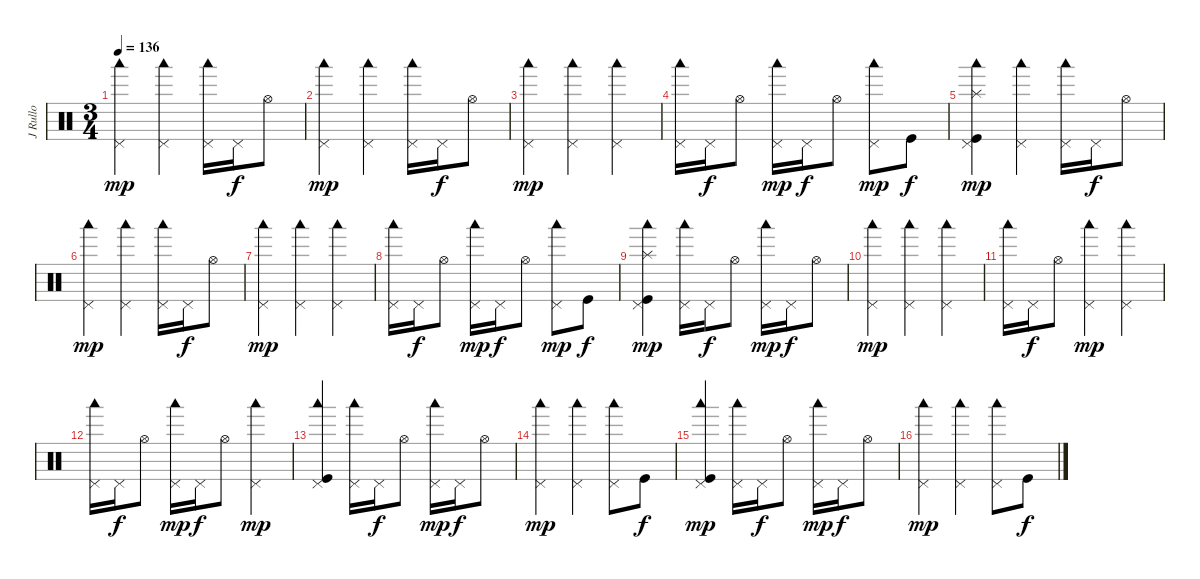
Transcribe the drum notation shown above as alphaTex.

\track ("J Rullo" "J Rullo") {instrument percussion}
\staff {score}
\articulation defaults
\ts (3 4)
\tempo 136
\clef neutral
\ks c
("Pedal Hi-Hat (hit)" "Woodblock low (hit)").4{dy mp} ("Pedal Hi-Hat (hit)" "Woodblock low (hit)").4 ("Pedal Hi-Hat (hit)" "Woodblock low (hit)").16 "Pedal Hi-Hat (hit)".16{dy f} "Hi-Hat (open)".8 |
("Pedal Hi-Hat (hit)" "Woodblock low (hit)").4{dy mp} ("Pedal Hi-Hat (hit)" "Woodblock low (hit)").4 ("Pedal Hi-Hat (hit)" "Woodblock low (hit)").16 "Pedal Hi-Hat (hit)".16{dy f} "Hi-Hat (open)".8 |
("Pedal Hi-Hat (hit)" "Woodblock low (hit)").4{dy mp} ("Pedal Hi-Hat (hit)" "Woodblock low (hit)").4 ("Pedal Hi-Hat (hit)" "Woodblock low (hit)").4 |
("Pedal Hi-Hat (hit)" "Woodblock low (hit)").16 "Pedal Hi-Hat (hit)".16{dy f} "Hi-Hat (open)".8 ("Pedal Hi-Hat (hit)" "Woodblock low (hit)").16{dy mp} "Pedal Hi-Hat (hit)".16{dy f} "Hi-Hat (open)".8 ("Pedal Hi-Hat (hit)" "Woodblock low (hit)").8{dy mp} "Kick (hit)".8{dy f} |
("Pedal Hi-Hat (hit)" "Woodblock low (hit)" "Splash (hit)" "Kick (hit)").4{dy mp} ("Pedal Hi-Hat (hit)" "Woodblock low (hit)").4 ("Pedal Hi-Hat (hit)" "Woodblock low (hit)").16 "Pedal Hi-Hat (hit)".16{dy f} "Hi-Hat (open)".8 |
("Pedal Hi-Hat (hit)" "Woodblock low (hit)").4{dy mp} ("Pedal Hi-Hat (hit)" "Woodblock low (hit)").4 ("Pedal Hi-Hat (hit)" "Woodblock low (hit)").16 "Pedal Hi-Hat (hit)".16{dy f} "Hi-Hat (open)".8 |
("Pedal Hi-Hat (hit)" "Woodblock low (hit)").4{dy mp} ("Pedal Hi-Hat (hit)" "Woodblock low (hit)").4 ("Pedal Hi-Hat (hit)" "Woodblock low (hit)").4 |
("Pedal Hi-Hat (hit)" "Woodblock low (hit)").16 "Pedal Hi-Hat (hit)".16{dy f} "Hi-Hat (open)".8 ("Pedal Hi-Hat (hit)" "Woodblock low (hit)").16{dy mp} "Pedal Hi-Hat (hit)".16{dy f} "Hi-Hat (open)".8 ("Pedal Hi-Hat (hit)" "Woodblock low (hit)").8{dy mp} "Kick (hit)".8{dy f} |
("Pedal Hi-Hat (hit)" "Woodblock low (hit)" "Splash (hit)" "Kick (hit)").4{dy mp} ("Pedal Hi-Hat (hit)" "Woodblock low (hit)").16 "Pedal Hi-Hat (hit)".16{dy f} "Hi-Hat (open)".8 ("Pedal Hi-Hat (hit)" "Woodblock low (hit)").16{dy mp} "Pedal Hi-Hat (hit)".16{dy f} "Hi-Hat (open)".8 |
("Pedal Hi-Hat (hit)" "Woodblock low (hit)").4{dy mp} ("Pedal Hi-Hat (hit)" "Woodblock low (hit)").4 ("Pedal Hi-Hat (hit)" "Woodblock low (hit)").4 |
("Pedal Hi-Hat (hit)" "Woodblock low (hit)").16 "Pedal Hi-Hat (hit)".16{dy f} "Hi-Hat (open)".8 ("Pedal Hi-Hat (hit)" "Woodblock low (hit)").4{dy mp} ("Pedal Hi-Hat (hit)" "Woodblock low (hit)").4 |
("Pedal Hi-Hat (hit)" "Woodblock low (hit)").16 "Pedal Hi-Hat (hit)".16{dy f} "Hi-Hat (open)".8 ("Pedal Hi-Hat (hit)" "Woodblock low (hit)").16{dy mp} "Pedal Hi-Hat (hit)".16{dy f} "Hi-Hat (open)".8 ("Pedal Hi-Hat (hit)" "Woodblock low (hit)").4{dy mp} |
("Pedal Hi-Hat (hit)" "Woodblock low (hit)" "Kick (hit)").4 ("Pedal Hi-Hat (hit)" "Woodblock low (hit)").16 "Pedal Hi-Hat (hit)".16{dy f} "Hi-Hat (open)".8 ("Pedal Hi-Hat (hit)" "Woodblock low (hit)").16{dy mp} "Pedal Hi-Hat (hit)".16{dy f} "Hi-Hat (open)".8 |
("Pedal Hi-Hat (hit)" "Woodblock low (hit)").4{dy mp} ("Pedal Hi-Hat (hit)" "Woodblock low (hit)").4 ("Pedal Hi-Hat (hit)" "Woodblock low (hit)").8 "Kick (hit)".8{dy f} |
("Pedal Hi-Hat (hit)" "Woodblock low (hit)" "Kick (hit)").4{dy mp} ("Pedal Hi-Hat (hit)" "Woodblock low (hit)").16 "Pedal Hi-Hat (hit)".16{dy f} "Hi-Hat (open)".8 ("Pedal Hi-Hat (hit)" "Woodblock low (hit)").16{dy mp} "Pedal Hi-Hat (hit)".16{dy f} "Hi-Hat (open)".8 |
("Pedal Hi-Hat (hit)" "Woodblock low (hit)").4{dy mp} ("Pedal Hi-Hat (hit)" "Woodblock low (hit)").4 ("Pedal Hi-Hat (hit)" "Woodblock low (hit)").8 "Kick (hit)".8{dy f}
